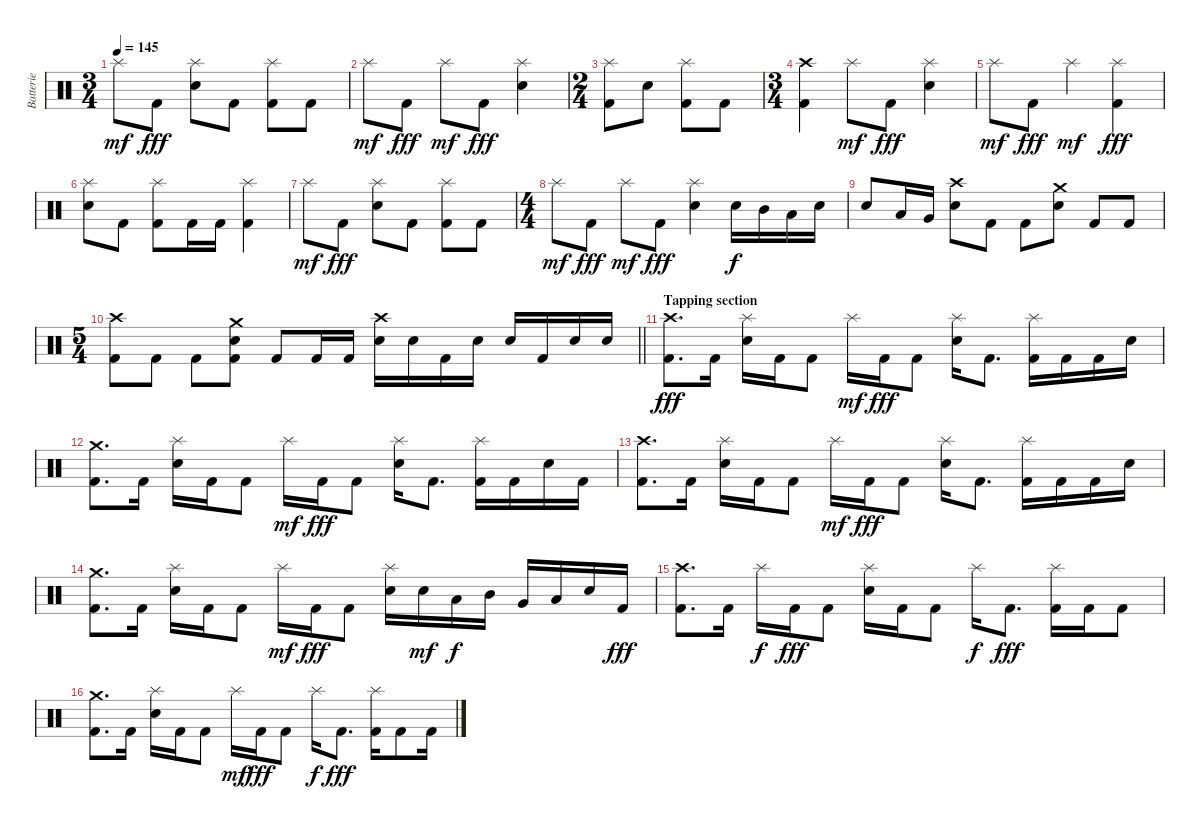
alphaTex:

\track ("Batterie" "Batterie") {instrument percussion}
\staff {score}
\articulation defaults
\ts (3 4)
\tempo 145
\clef neutral
\ks c "Splash (hit)".8{dy mf} "Kick (hit) 2".8{dy fff}
("Splash (hit)" "Electric Snare (hit)").8 "Kick (hit) 2".8 ("Splash (hit)" "Kick (hit) 2").8 "Kick (hit) 2".8 |
"Splash (hit)".8{dy mf} "Kick (hit) 2".8{dy fff} "Splash (hit)".8{dy mf} "Kick (hit) 2".8{dy fff} ("Splash (hit)" "Electric Snare (hit)").4 |
\ts (2 4)
("Splash (hit)" "Kick (hit) 2").8 "Electric Snare (hit)".8 ("Splash (hit)" "Kick (hit) 2").8 "Kick (hit) 2".8 |
\ts (3 4)
("Crash high (hit)" "Kick (hit) 2").4 "Splash (hit)".8{dy mf} "Kick (hit) 2".8{dy fff} ("Splash (hit)" "Electric Snare (hit)").4 |
"Splash (hit)".8{dy mf} "Kick (hit) 2".8{dy fff} "Splash (hit)".4{dy mf} ("Splash (hit)" "Kick (hit) 2").4{dy fff} |
("Splash (hit)" "Electric Snare (hit)").8 "Kick (hit) 2".8 ("Splash (hit)" "Kick (hit) 2").8 "Kick (hit) 2".16 "Kick (hit) 2".16 ("Splash (hit)" "Kick (hit) 2").4 |
"Splash (hit)".8{dy mf} "Kick (hit) 2".8{dy fff} ("Splash (hit)" "Electric Snare (hit)").8 "Kick (hit) 2".8 ("Splash (hit)" "Kick (hit) 2").8 "Kick (hit) 2".8 |
\ts (4 4)
"Splash (hit)".8{dy mf} "Kick (hit) 2".8{dy fff} "Splash (hit)".8{dy mf} "Kick (hit) 2".8{dy fff} ("Splash (hit)" "Electric Snare (hit)").4 "Electric Snare (hit)".16{dy f} "Mid Tom (hit)".16 "Low Tom (hit)".16 "Electric Snare (hit)".16 |
"Electric Snare (hit)".8 "Low Tom (hit)".16 "Very Low Tom (hit)".16 ("Crash high (hit)" "Electric Snare (hit)").8 "Kick (hit) 2".8 "Kick (hit) 2".8 ("Crash medium (hit)" "Electric Snare (hit)").8 "Kick (hit) 2".8 "Kick (hit) 2".8 |
\ts (5 4)
\barLineRight lightlight
("Crash high (hit)" "Kick (hit) 2").8 "Kick (hit) 2".8 "Kick (hit) 2".8 ("Crash medium (hit)" "Electric Snare (hit)" "Kick (hit) 2").8 "Kick (hit) 2".8 "Kick (hit) 2".16 "Kick (hit) 2".16 ("Crash high (hit)" "Electric Snare (hit)").16 "Electric Snare (hit)".16 "Kick (hit) 2".16 "Electric Snare (hit)".16 "Electric Snare (hit)".16 "Kick (hit) 2".16 "Electric Snare (hit)".16 "Electric Snare (hit)".16 |
\section ("" "Tapping section")
("Crash high (hit)" "Kick (hit) 2").8{d dy fff} "Kick (hit) 2".16 ("Splash (hit)" "Electric Snare (hit)").16 "Kick (hit) 2".16 "Kick (hit) 2".8 "Splash (hit)".16{dy mf} "Kick (hit) 2".16{dy fff} "Kick (hit) 2".8 ("Splash (hit)" "Electric Snare (hit)").16 "Kick (hit) 2".8{d} ("Splash (hit)" "Kick (hit) 2").16 "Kick (hit) 2".16 "Kick (hit) 2".16 "Electric Snare (hit)".16 |
("Crash medium (hit)" "Kick (hit) 2").8{d} "Kick (hit) 2".16 ("Splash (hit)" "Electric Snare (hit)").16 "Kick (hit) 2".16 "Kick (hit) 2".8 "Splash (hit)".16{dy mf} "Kick (hit) 2".16{dy fff} "Kick (hit) 2".8 ("Splash (hit)" "Electric Snare (hit)").16 "Kick (hit) 2".8{d} ("Splash (hit)" "Kick (hit) 2").16 "Kick (hit) 2".16 "Electric Snare (hit)".16 "Kick (hit) 2".16 |
("Crash high (hit)" "Kick (hit) 2").8{d} "Kick (hit) 2".16 ("Splash (hit)" "Electric Snare (hit)").16 "Kick (hit) 2".16 "Kick (hit) 2".8 "Splash (hit)".16{dy mf} "Kick (hit) 2".16{dy fff} "Kick (hit) 2".8 ("Splash (hit)" "Electric Snare (hit)").16 "Kick (hit) 2".8{d} ("Splash (hit)" "Kick (hit) 2").16 "Kick (hit) 2".16 "Kick (hit) 2".16 "Electric Snare (hit)".16 |
("Crash medium (hit)" "Kick (hit) 2").8{d} "Kick (hit) 2".16 ("Splash (hit)" "Electric Snare (hit)").16 "Kick (hit) 2".16 "Kick (hit) 2".8 "Splash (hit)".16{dy mf} "Kick (hit) 2".16{dy fff} "Kick (hit) 2".8 ("Splash (hit)" "Electric Snare (hit)").16 "Electric Snare (hit)".16{dy mf} "Low Tom (hit)".16{dy f} "Mid Tom (hit)".16 "Very Low Tom (hit)".16 "Low Floor Tom (hit)".16 "Electric Snare (hit)".16 "Kick (hit) 2".16{dy fff} |
("Crash high (hit)" "Kick (hit) 2").8{d} "Kick (hit) 2".16 "Splash (hit)".16{dy f} "Kick (hit) 2".16{dy fff} "Kick (hit) 2".8 ("Splash (hit)" "Electric Snare (hit)").16 "Kick (hit) 2".16 "Kick (hit) 2".8 "Splash (hit)".16{dy f} "Kick (hit) 2".8{d dy fff} ("Splash (hit)" "Kick (hit) 2").16 "Kick (hit) 2".16 "Kick (hit) 2".8 |
("Crash medium (hit)" "Kick (hit) 2").8{d} "Kick (hit) 2".16 ("Splash (hit)" "Electric Snare (hit)").16 "Kick (hit) 2".16 "Kick (hit) 2".8 "Splash (hit)".16{dy mf} "Kick (hit) 2".16{dy fff} "Kick (hit) 2".8 "Splash (hit)".16{dy f} "Kick (hit) 2".8{d dy fff} ("Splash (hit)" "Kick (hit) 2").16 "Kick (hit) 2".8 "Kick (hit) 2".16
